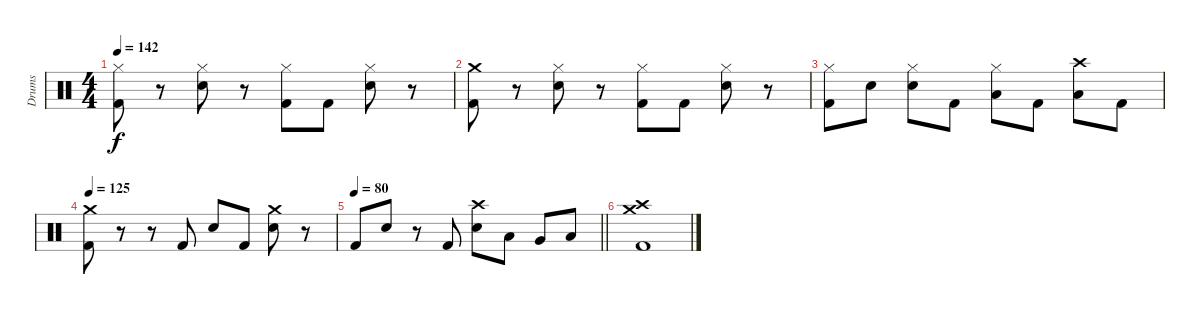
\track ("Drums" "Drums") {instrument percussion}
\staff {score}
\articulation defaults
\ts (4 4)
\tempo 142
\clef neutral
\ks c
("Hi-Hat (closed)" "Kick (hit) 2").8{dy f} r.8 ("Hi-Hat (closed)" "Electric Snare (hit)").8 r.8 ("Hi-Hat (closed)" "Kick (hit) 2").8 "Kick (hit) 2".8 ("Hi-Hat (closed)" "Electric Snare (hit)").8 r.8 |
("Crash medium (hit)" "Kick (hit) 2").8 r.8 ("Hi-Hat (closed)" "Electric Snare (hit)").8 r.8 ("Hi-Hat (closed)" "Kick (hit) 2").8 "Kick (hit) 2".8 ("Hi-Hat (closed)" "Electric Snare (hit)").8 r.8 |
("Hi-Hat (closed)" "Kick (hit) 2").8 "Electric Snare (hit)".8 ("Hi-Hat (closed)" "Electric Snare (hit)").8 "Kick (hit) 2".8 ("Hi-Hat (closed)" "Low Floor Tom (hit)").8 "Kick (hit) 2".8 ("Crash high (hit)" "Low Floor Tom (hit)").8 "Kick (hit) 2".8 |
\tempo 125
("Crash medium (hit)" "Kick (hit) 2").8 r.8 r.8 "Kick (hit) 2".8 "Electric Snare (hit)".8 "Kick (hit) 2".8 ("Crash medium (hit)" "Electric Snare (hit)").8 r.8 |
\tempo 80
\barLineRight lightlight "Kick (hit) 2".8 "Electric Snare (hit)".8
r.8 "Kick (hit) 2".8 ("Crash high (hit)" "Electric Snare (hit)").8 "Low Tom (hit)".8 "Very Low Tom (hit)".8 "Low Floor Tom (hit)".8 |
("Crash medium (hit)" "Crash high (hit)" "Kick (hit) 2").1
